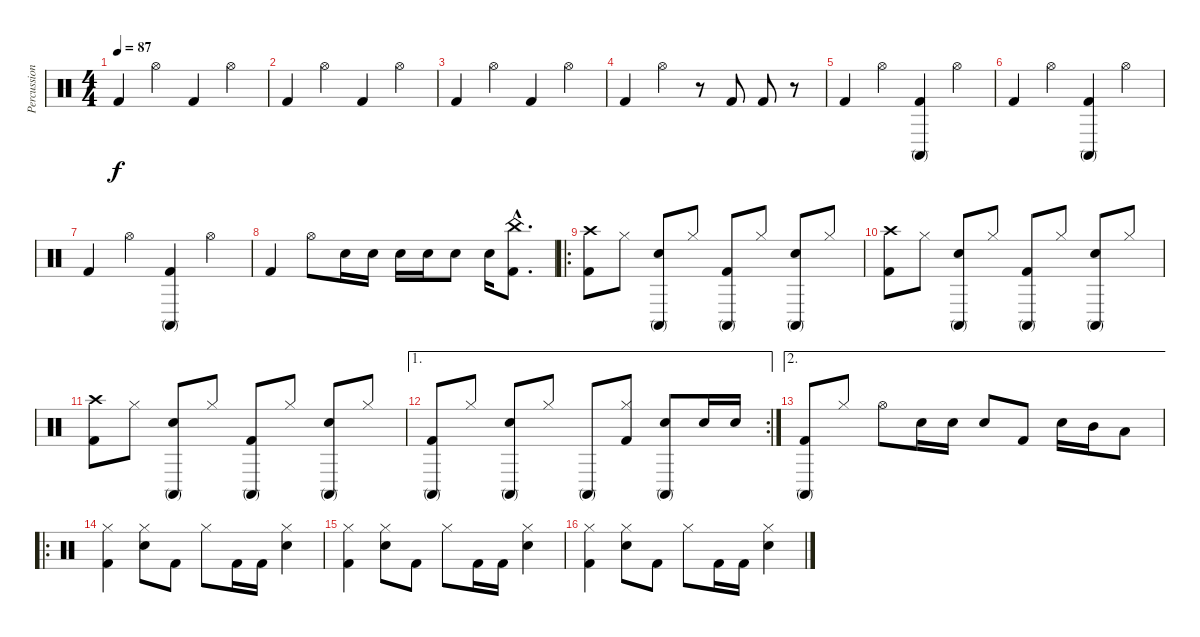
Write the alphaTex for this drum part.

\track ("Percussions" "Percussion") {instrument percussion}
\staff {score}
\articulation defaults
\ts (4 4)
\tempo 87
\clef neutral
\ks c "Kick (hit) 2".4{dy f} "Hi-Hat (open)".4 "Kick (hit) 2".4 "Hi-Hat (open)".4
|
"Kick (hit) 2".4 "Hi-Hat (open)".4 "Kick (hit) 2".4 "Hi-Hat (open)".4 |
"Kick (hit) 2".4 "Hi-Hat (open)".4 "Kick (hit) 2".4 "Hi-Hat (open)".4 |
"Kick (hit) 2".4 "Hi-Hat (open)".4 r.8 "Kick (hit) 2".8 "Kick (hit) 2".8 r.8 |
"Kick (hit) 2".4 "Hi-Hat (open)".4 ("Conga high (mute)" "Kick (hit) 2").4 "Hi-Hat (open)".4 |
"Kick (hit) 2".4 "Hi-Hat (open)".4 ("Conga high (mute)" "Kick (hit) 2").4 "Hi-Hat (open)".4 |
"Kick (hit) 2".4 "Hi-Hat (open)".4 ("Conga high (mute)" "Kick (hit) 2").4 "Hi-Hat (open)".4 |
"Kick (hit) 2".4 "Hi-Hat (open)".8 "Snare (hit) 2".16 "Snare (hit) 2".16 "Snare (hit) 2".16 "Snare (hit) 2".16 "Snare (hit) 2".8 "Snare (hit) 2".16 ("China (hit)"{hac} "Kick (hit) 2"{hac}).8{d} |
\ro
("Crash high (hit)" "Kick (hit) 2").8 "Hi-Hat (closed)".8 ("Conga high (mute)" "Snare (hit) 2").8 "Hi-Hat (closed)".8 ("Conga high (mute)" "Kick (hit) 2").8 "Hi-Hat (closed)".8 ("Conga high (mute)" "Snare (hit) 2").8 "Hi-Hat (closed)".8 |
("Crash high (hit)" "Kick (hit) 2").8 "Hi-Hat (closed)".8 ("Conga high (mute)" "Snare (hit) 2").8 "Hi-Hat (closed)".8 ("Conga high (mute)" "Kick (hit) 2").8 "Hi-Hat (closed)".8 ("Conga high (mute)" "Snare (hit) 2").8 "Hi-Hat (closed)".8 |
("Crash high (hit)" "Kick (hit) 2").8 "Hi-Hat (closed)".8 ("Conga high (mute)" "Snare (hit) 2").8 "Hi-Hat (closed)".8 ("Conga high (mute)" "Kick (hit) 2").8 "Hi-Hat (closed)".8 ("Conga high (mute)" "Snare (hit) 2").8 "Hi-Hat (closed)".8 |
\ae 1
\rc 2
("Conga high (mute)" "Kick (hit) 2").8 "Hi-Hat (closed)".8 ("Conga high (mute)" "Snare (hit) 2").8 "Hi-Hat (closed)".8 "Conga high (mute)".8 ("Hi-Hat (closed)" "Kick (hit) 2").8 ("Conga high (mute)" "Snare (hit) 2").8 "Snare (hit) 2".16 "Snare (hit) 2".16 |
\ae 2
("Conga high (mute)" "Kick (hit) 2").8 "Hi-Hat (closed)".8 "Hi-Hat (open)".8 "Snare (hit) 2".16 "Snare (hit) 2".16 "Snare (hit) 2".8 "Kick (hit) 2".8 "Snare (hit) 2".16 "Mid Tom (hit)".16 "Low Tom (hit)".8 |
\ro
("Hi-Hat (closed)" "Kick (hit) 2").4 ("Hi-Hat (closed)" "Snare (hit) 2").8 "Kick (hit) 2".8 "Hi-Hat (closed)".8 "Kick (hit) 2".16 "Kick (hit) 2".16 ("Hi-Hat (closed)" "Snare (hit) 2").4 |
("Hi-Hat (closed)" "Kick (hit) 2").4 ("Hi-Hat (closed)" "Snare (hit) 2").8 "Kick (hit) 2".8 "Hi-Hat (closed)".8 "Kick (hit) 2".16 "Kick (hit) 2".16 ("Hi-Hat (closed)" "Snare (hit) 2").4 |
("Hi-Hat (closed)" "Kick (hit) 2").4 ("Hi-Hat (closed)" "Snare (hit) 2").8 "Kick (hit) 2".8 "Hi-Hat (closed)".8 "Kick (hit) 2".16 "Kick (hit) 2".16 ("Hi-Hat (closed)" "Snare (hit) 2").4
